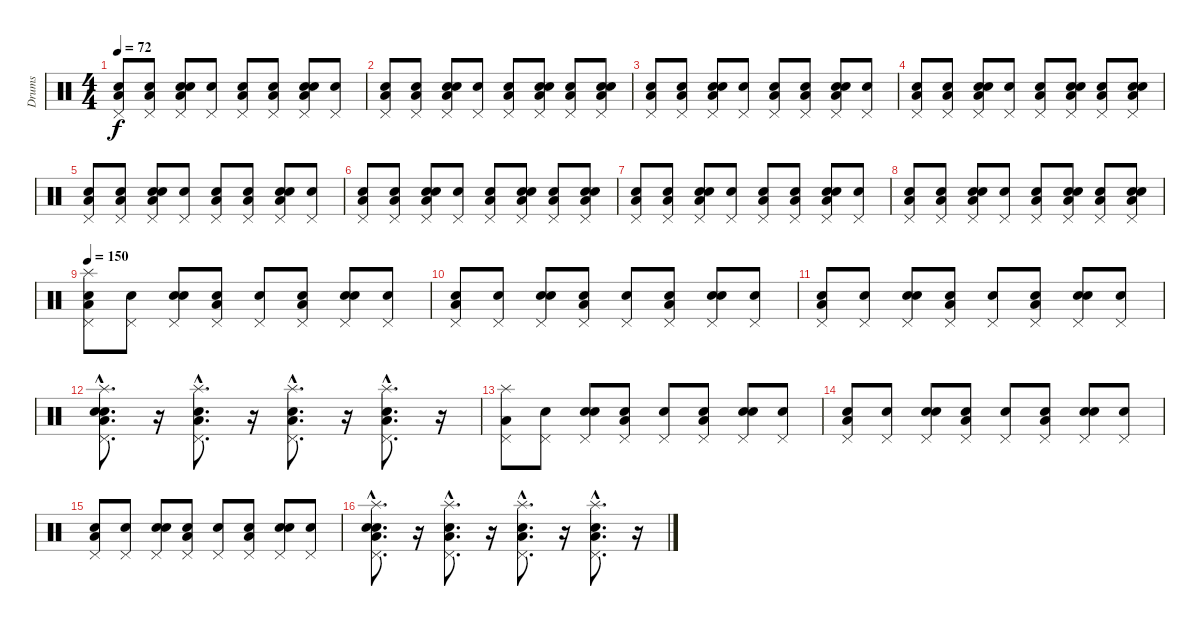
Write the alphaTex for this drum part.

\track ("Drums" "Drums") {instrument percussion}
\staff {score}
\articulation defaults
\ts (4 4)
\tempo 72
\clef neutral
\ks c
("Snare (hit)" "Low Floor Tom (hit)" "Pedal Hi-Hat (hit)").8{dy f} ("Snare (hit)" "Low Floor Tom (hit)" "Pedal Hi-Hat (hit)").8 ("Snare (hit)" "Electric Snare (hit)" "Low Floor Tom (hit)" "Pedal Hi-Hat (hit)").8 ("Snare (hit)" "Pedal Hi-Hat (hit)").8 ("Snare (hit)" "Low Floor Tom (hit)" "Pedal Hi-Hat (hit)").8 ("Snare (hit)" "Low Floor Tom (hit)" "Pedal Hi-Hat (hit)").8 ("Snare (hit)" "Electric Snare (hit)" "Low Floor Tom (hit)" "Pedal Hi-Hat (hit)").8 ("Snare (hit)" "Pedal Hi-Hat (hit)").8 |
("Snare (hit)" "Low Floor Tom (hit)" "Pedal Hi-Hat (hit)").8 ("Snare (hit)" "Low Floor Tom (hit)" "Pedal Hi-Hat (hit)").8 ("Snare (hit)" "Electric Snare (hit)" "Low Floor Tom (hit)" "Pedal Hi-Hat (hit)").8 ("Snare (hit)" "Pedal Hi-Hat (hit)").8 ("Snare (hit)" "Low Floor Tom (hit)" "Pedal Hi-Hat (hit)").8 ("Snare (hit)" "Electric Snare (hit)" "Low Floor Tom (hit)" "Pedal Hi-Hat (hit)").8 ("Snare (hit)" "Low Floor Tom (hit)" "Pedal Hi-Hat (hit)").8 ("Snare (hit)" "Electric Snare (hit)" "Low Floor Tom (hit)" "Pedal Hi-Hat (hit)").8 |
("Snare (hit)" "Low Floor Tom (hit)" "Pedal Hi-Hat (hit)").8 ("Snare (hit)" "Low Floor Tom (hit)" "Pedal Hi-Hat (hit)").8 ("Snare (hit)" "Electric Snare (hit)" "Low Floor Tom (hit)" "Pedal Hi-Hat (hit)").8 ("Snare (hit)" "Pedal Hi-Hat (hit)").8 ("Snare (hit)" "Low Floor Tom (hit)" "Pedal Hi-Hat (hit)").8 ("Snare (hit)" "Low Floor Tom (hit)" "Pedal Hi-Hat (hit)").8 ("Snare (hit)" "Electric Snare (hit)" "Low Floor Tom (hit)" "Pedal Hi-Hat (hit)").8 ("Snare (hit)" "Pedal Hi-Hat (hit)").8 |
("Snare (hit)" "Low Floor Tom (hit)" "Pedal Hi-Hat (hit)").8 ("Snare (hit)" "Low Floor Tom (hit)" "Pedal Hi-Hat (hit)").8 ("Snare (hit)" "Electric Snare (hit)" "Low Floor Tom (hit)" "Pedal Hi-Hat (hit)").8 ("Snare (hit)" "Pedal Hi-Hat (hit)").8 ("Snare (hit)" "Low Floor Tom (hit)" "Pedal Hi-Hat (hit)").8 ("Snare (hit)" "Electric Snare (hit)" "Low Floor Tom (hit)" "Pedal Hi-Hat (hit)").8 ("Snare (hit)" "Low Floor Tom (hit)" "Pedal Hi-Hat (hit)").8 ("Snare (hit)" "Electric Snare (hit)" "Low Floor Tom (hit)" "Pedal Hi-Hat (hit)").8 |
("Snare (hit)" "Low Floor Tom (hit)" "Pedal Hi-Hat (hit)").8 ("Snare (hit)" "Low Floor Tom (hit)" "Pedal Hi-Hat (hit)").8 ("Snare (hit)" "Electric Snare (hit)" "Low Floor Tom (hit)" "Pedal Hi-Hat (hit)").8 ("Snare (hit)" "Pedal Hi-Hat (hit)").8 ("Snare (hit)" "Low Floor Tom (hit)" "Pedal Hi-Hat (hit)").8 ("Snare (hit)" "Low Floor Tom (hit)" "Pedal Hi-Hat (hit)").8 ("Snare (hit)" "Electric Snare (hit)" "Low Floor Tom (hit)" "Pedal Hi-Hat (hit)").8 ("Snare (hit)" "Pedal Hi-Hat (hit)").8 |
("Snare (hit)" "Low Floor Tom (hit)" "Pedal Hi-Hat (hit)").8 ("Snare (hit)" "Low Floor Tom (hit)" "Pedal Hi-Hat (hit)").8 ("Snare (hit)" "Electric Snare (hit)" "Low Floor Tom (hit)" "Pedal Hi-Hat (hit)").8 ("Snare (hit)" "Pedal Hi-Hat (hit)").8 ("Snare (hit)" "Low Floor Tom (hit)" "Pedal Hi-Hat (hit)").8 ("Snare (hit)" "Electric Snare (hit)" "Low Floor Tom (hit)" "Pedal Hi-Hat (hit)").8 ("Snare (hit)" "Low Floor Tom (hit)" "Pedal Hi-Hat (hit)").8 ("Snare (hit)" "Electric Snare (hit)" "Low Floor Tom (hit)" "Pedal Hi-Hat (hit)").8 |
("Snare (hit)" "Low Floor Tom (hit)" "Pedal Hi-Hat (hit)").8 ("Snare (hit)" "Low Floor Tom (hit)" "Pedal Hi-Hat (hit)").8 ("Snare (hit)" "Electric Snare (hit)" "Low Floor Tom (hit)" "Pedal Hi-Hat (hit)").8 ("Snare (hit)" "Pedal Hi-Hat (hit)").8 ("Snare (hit)" "Low Floor Tom (hit)" "Pedal Hi-Hat (hit)").8 ("Snare (hit)" "Low Floor Tom (hit)" "Pedal Hi-Hat (hit)").8 ("Snare (hit)" "Electric Snare (hit)" "Low Floor Tom (hit)" "Pedal Hi-Hat (hit)").8 ("Snare (hit)" "Pedal Hi-Hat (hit)").8 |
("Snare (hit)" "Low Floor Tom (hit)" "Pedal Hi-Hat (hit)").8 ("Snare (hit)" "Low Floor Tom (hit)" "Pedal Hi-Hat (hit)").8 ("Snare (hit)" "Electric Snare (hit)" "Low Floor Tom (hit)" "Pedal Hi-Hat (hit)").8 ("Snare (hit)" "Pedal Hi-Hat (hit)").8 ("Snare (hit)" "Low Floor Tom (hit)" "Pedal Hi-Hat (hit)").8 ("Snare (hit)" "Electric Snare (hit)" "Low Floor Tom (hit)" "Pedal Hi-Hat (hit)").8 ("Snare (hit)" "Low Floor Tom (hit)" "Pedal Hi-Hat (hit)").8 ("Snare (hit)" "Electric Snare (hit)" "Low Floor Tom (hit)" "Pedal Hi-Hat (hit)").8 |
\tempo 150
("Snare (hit)" "Low Floor Tom (hit)" "Pedal Hi-Hat (hit)" "Splash (hit)").8 ("Snare (hit)" "Pedal Hi-Hat (hit)").8 ("Snare (hit)" "Electric Snare (hit)" "Pedal Hi-Hat (hit)").8 ("Snare (hit)" "Low Floor Tom (hit)" "Pedal Hi-Hat (hit)").8 ("Snare (hit)" "Pedal Hi-Hat (hit)").8 ("Snare (hit)" "Low Floor Tom (hit)" "Pedal Hi-Hat (hit)").8 ("Snare (hit)" "Electric Snare (hit)" "Pedal Hi-Hat (hit)").8 ("Snare (hit)" "Pedal Hi-Hat (hit)").8 |
("Snare (hit)" "Low Floor Tom (hit)" "Pedal Hi-Hat (hit)").8 ("Snare (hit)" "Pedal Hi-Hat (hit)").8 ("Snare (hit)" "Electric Snare (hit)" "Pedal Hi-Hat (hit)").8 ("Snare (hit)" "Low Floor Tom (hit)" "Pedal Hi-Hat (hit)").8 ("Snare (hit)" "Pedal Hi-Hat (hit)").8 ("Snare (hit)" "Low Floor Tom (hit)" "Pedal Hi-Hat (hit)").8 ("Snare (hit)" "Electric Snare (hit)" "Pedal Hi-Hat (hit)").8 ("Snare (hit)" "Pedal Hi-Hat (hit)").8 |
("Snare (hit)" "Low Floor Tom (hit)" "Pedal Hi-Hat (hit)").8 ("Snare (hit)" "Pedal Hi-Hat (hit)").8 ("Snare (hit)" "Electric Snare (hit)" "Pedal Hi-Hat (hit)").8 ("Snare (hit)" "Low Floor Tom (hit)" "Pedal Hi-Hat (hit)").8 ("Snare (hit)" "Pedal Hi-Hat (hit)").8 ("Snare (hit)" "Low Floor Tom (hit)" "Pedal Hi-Hat (hit)").8 ("Snare (hit)" "Electric Snare (hit)" "Pedal Hi-Hat (hit)").8 ("Snare (hit)" "Pedal Hi-Hat (hit)").8 |
("Snare (hit)"{hac} "Electric Snare (hit)"{hac} "Low Floor Tom (hit)"{hac} "Pedal Hi-Hat (hit)"{hac} "Splash (hit)"{hac}).8{d} r.16 ("Electric Snare (hit)"{hac} "Low Floor Tom (hit)"{hac} "Pedal Hi-Hat (hit)"{hac} "Splash (hit)"{hac}).8{d} r.16 ("Electric Snare (hit)"{hac} "Low Floor Tom (hit)"{hac} "Pedal Hi-Hat (hit)"{hac} "Splash (hit)"{hac}).8{d} r.16 ("Electric Snare (hit)"{hac} "Low Floor Tom (hit)"{hac} "Pedal Hi-Hat (hit)"{hac} "Splash (hit)"{hac}).8{d} r.16 |
("Low Floor Tom (hit)" "Pedal Hi-Hat (hit)" "Splash (hit)").8 ("Snare (hit)" "Pedal Hi-Hat (hit)").8 ("Snare (hit)" "Electric Snare (hit)" "Pedal Hi-Hat (hit)").8 ("Snare (hit)" "Low Floor Tom (hit)" "Pedal Hi-Hat (hit)").8 ("Snare (hit)" "Pedal Hi-Hat (hit)").8 ("Snare (hit)" "Low Floor Tom (hit)" "Pedal Hi-Hat (hit)").8 ("Snare (hit)" "Electric Snare (hit)" "Pedal Hi-Hat (hit)").8 ("Snare (hit)" "Pedal Hi-Hat (hit)").8 |
("Snare (hit)" "Low Floor Tom (hit)" "Pedal Hi-Hat (hit)").8 ("Snare (hit)" "Pedal Hi-Hat (hit)").8 ("Snare (hit)" "Electric Snare (hit)" "Pedal Hi-Hat (hit)").8 ("Snare (hit)" "Low Floor Tom (hit)" "Pedal Hi-Hat (hit)").8 ("Snare (hit)" "Pedal Hi-Hat (hit)").8 ("Snare (hit)" "Low Floor Tom (hit)" "Pedal Hi-Hat (hit)").8 ("Snare (hit)" "Electric Snare (hit)" "Pedal Hi-Hat (hit)").8 ("Snare (hit)" "Pedal Hi-Hat (hit)").8 |
("Snare (hit)" "Low Floor Tom (hit)" "Pedal Hi-Hat (hit)").8 ("Snare (hit)" "Pedal Hi-Hat (hit)").8 ("Snare (hit)" "Electric Snare (hit)" "Pedal Hi-Hat (hit)").8 ("Snare (hit)" "Low Floor Tom (hit)" "Pedal Hi-Hat (hit)").8 ("Snare (hit)" "Pedal Hi-Hat (hit)").8 ("Snare (hit)" "Low Floor Tom (hit)" "Pedal Hi-Hat (hit)").8 ("Snare (hit)" "Electric Snare (hit)" "Pedal Hi-Hat (hit)").8 ("Snare (hit)" "Pedal Hi-Hat (hit)").8 |
("Snare (hit)"{hac} "Electric Snare (hit)"{hac} "Low Floor Tom (hit)"{hac} "Pedal Hi-Hat (hit)"{hac} "Splash (hit)"{hac}).8{d} r.16 ("Electric Snare (hit)"{hac} "Low Floor Tom (hit)"{hac} "Pedal Hi-Hat (hit)"{hac} "Splash (hit)"{hac}).8{d} r.16 ("Electric Snare (hit)"{hac} "Low Floor Tom (hit)"{hac} "Pedal Hi-Hat (hit)"{hac} "Splash (hit)"{hac}).8{d} r.16 ("Electric Snare (hit)"{hac} "Low Floor Tom (hit)"{hac} "Pedal Hi-Hat (hit)"{hac} "Splash (hit)"{hac}).8{d} r.16
